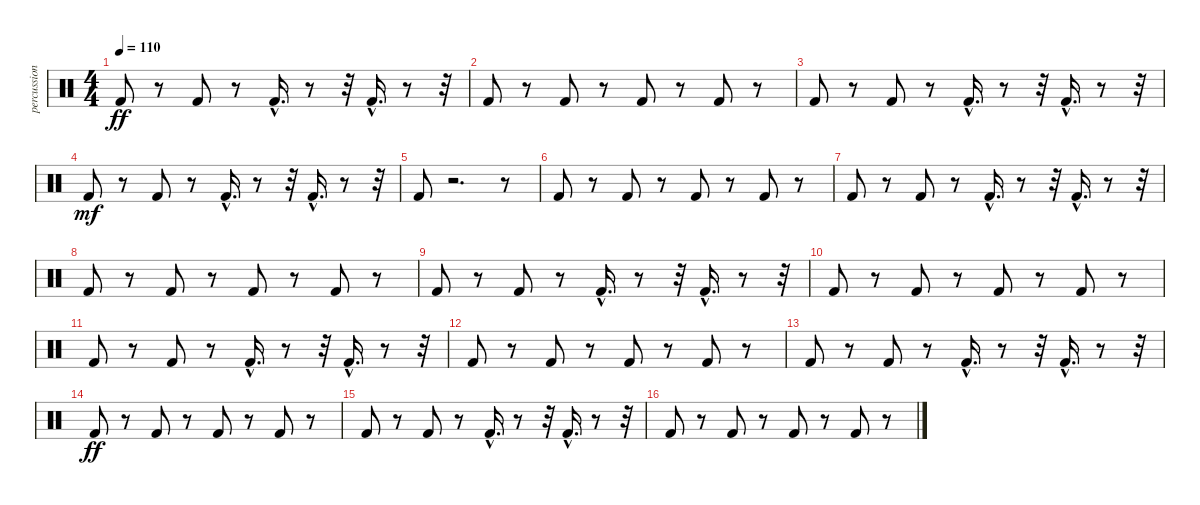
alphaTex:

\track ("percussions 1" "percussion") {instrument percussion}
\staff {score}
\articulation defaults
\ts (4 4)
\tempo 110
\clef neutral
\ks c "Kick (hit) 2".8{dy ff}
r.8 "Kick (hit) 2".8 r.8 "Kick (hit) 2"{hac}.16{d} r.8 r.32 "Kick (hit) 2"{hac}.16{d} r.8 r.32 |
"Kick (hit) 2".8 r.8 "Kick (hit) 2".8 r.8 "Kick (hit) 2".8 r.8 "Kick (hit) 2".8 r.8 |
"Kick (hit) 2".8 r.8 "Kick (hit) 2".8 r.8 "Kick (hit) 2"{hac}.16{d} r.8 r.32 "Kick (hit) 2"{hac}.16{d} r.8 r.32 |
"Kick (hit) 2".8{dy mf} r.8 "Kick (hit) 2".8 r.8 "Kick (hit) 2"{hac}.16{d} r.8 r.32 "Kick (hit) 2"{hac}.16{d} r.8 r.32 |
"Kick (hit) 2".8 r.2{d} r.8 |
"Kick (hit) 2".8 r.8 "Kick (hit) 2".8 r.8 "Kick (hit) 2".8 r.8 "Kick (hit) 2".8 r.8 |
"Kick (hit) 2".8 r.8 "Kick (hit) 2".8 r.8 "Kick (hit) 2"{hac}.16{d} r.8 r.32 "Kick (hit) 2"{hac}.16{d} r.8 r.32 |
"Kick (hit) 2".8 r.8 "Kick (hit) 2".8 r.8 "Kick (hit) 2".8 r.8 "Kick (hit) 2".8 r.8 |
"Kick (hit) 2".8 r.8 "Kick (hit) 2".8 r.8 "Kick (hit) 2"{hac}.16{d} r.8 r.32 "Kick (hit) 2"{hac}.16{d} r.8 r.32 |
"Kick (hit) 2".8 r.8 "Kick (hit) 2".8 r.8 "Kick (hit) 2".8 r.8 "Kick (hit) 2".8 r.8 |
"Kick (hit) 2".8 r.8 "Kick (hit) 2".8 r.8 "Kick (hit) 2"{hac}.16{d} r.8 r.32 "Kick (hit) 2"{hac}.16{d} r.8 r.32 |
"Kick (hit) 2".8 r.8 "Kick (hit) 2".8 r.8 "Kick (hit) 2".8 r.8 "Kick (hit) 2".8 r.8 |
"Kick (hit) 2".8 r.8 "Kick (hit) 2".8 r.8 "Kick (hit) 2"{hac}.16{d} r.8 r.32 "Kick (hit) 2"{hac}.16{d} r.8 r.32 |
"Kick (hit) 2".8{dy ff} r.8 "Kick (hit) 2".8 r.8 "Kick (hit) 2".8 r.8 "Kick (hit) 2".8 r.8 |
"Kick (hit) 2".8 r.8 "Kick (hit) 2".8 r.8 "Kick (hit) 2"{hac}.16{d} r.8 r.32 "Kick (hit) 2"{hac}.16{d} r.8 r.32 |
"Kick (hit) 2".8 r.8 "Kick (hit) 2".8 r.8 "Kick (hit) 2".8 r.8 "Kick (hit) 2".8 r.8
